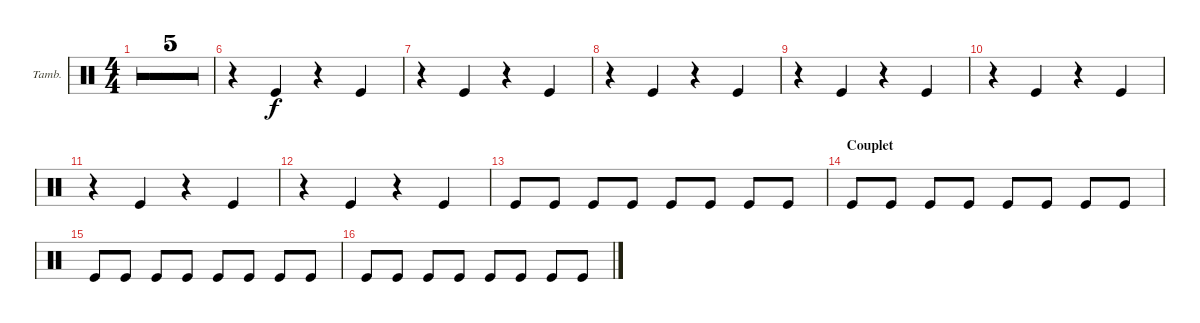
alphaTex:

\defaultSystemsLayout 4
\bracketExtendMode groupsimilarinstruments
\firstSystemTrackNameOrientation horizontal
\otherSystemsTrackNameOrientation horizontal
\track ("Tambourine" "Tamb.") {multiBarRest instrument percussion}
\staff {score}
\articulation defaults
\ts (4 4)
\tempo 120
\clef neutral
\ks c
|
|
|
|
|
r.4 "Kick (hit)".4 r.4 "Kick (hit)".4 |
r.4 "Kick (hit)".4 r.4 "Kick (hit)".4 |
r.4 "Kick (hit)".4 r.4 "Kick (hit)".4 |
r.4 "Kick (hit)".4 r.4 "Kick (hit)".4 |
r.4 "Kick (hit)".4 r.4 "Kick (hit)".4 |
r.4 "Kick (hit)".4 r.4 "Kick (hit)".4 |
r.4 "Kick (hit)".4 r.4 "Kick (hit)".4 |
"Kick (hit)".8 "Kick (hit)".8 "Kick (hit)".8 "Kick (hit)".8 "Kick (hit)".8 "Kick (hit)".8 "Kick (hit)".8 "Kick (hit)".8 |
\section ("" "Couplet")
"Kick (hit)".8 "Kick (hit)".8 "Kick (hit)".8 "Kick (hit)".8 "Kick (hit)".8 "Kick (hit)".8 "Kick (hit)".8 "Kick (hit)".8 |
"Kick (hit)".8 "Kick (hit)".8 "Kick (hit)".8 "Kick (hit)".8 "Kick (hit)".8 "Kick (hit)".8 "Kick (hit)".8 "Kick (hit)".8 |
"Kick (hit)".8 "Kick (hit)".8 "Kick (hit)".8 "Kick (hit)".8 "Kick (hit)".8 "Kick (hit)".8 "Kick (hit)".8 "Kick (hit)".8
